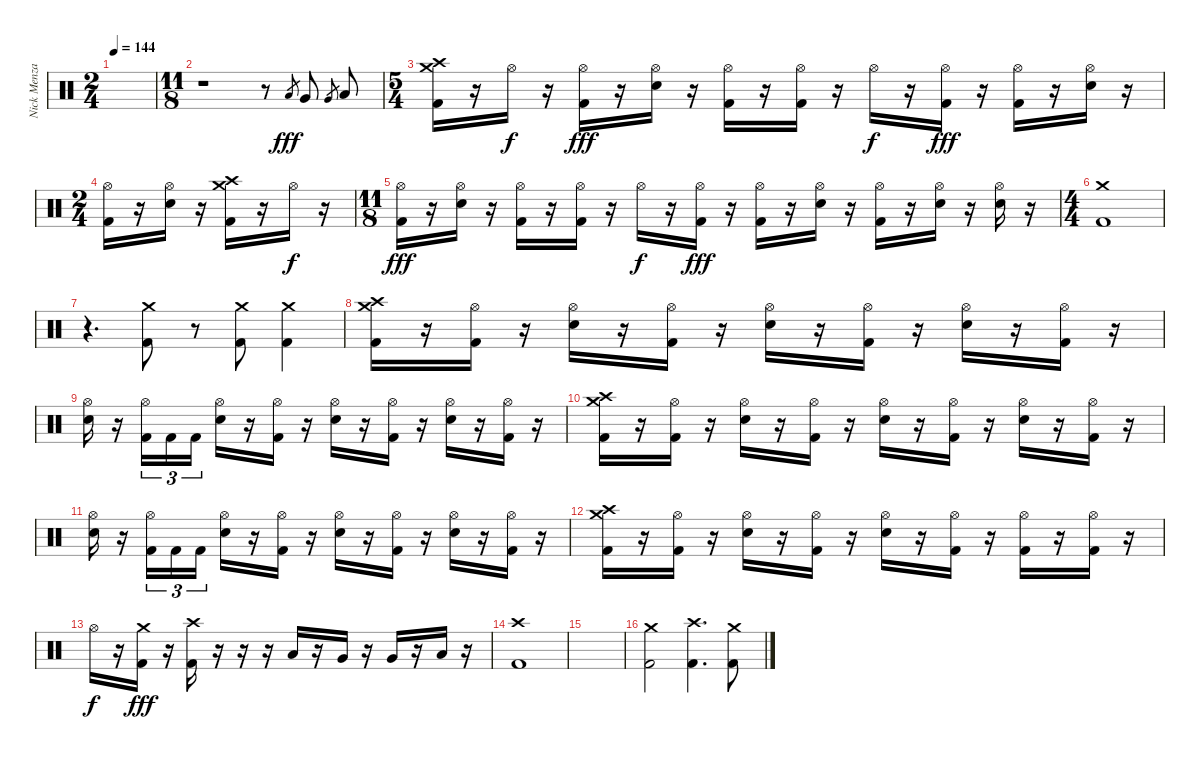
\track ("Nick Menza" "Nick Menza") {instrument percussion}
\staff {score}
\articulation defaults
\ts (2 4)
\tempo 144
\clef neutral
\ks c
|
\ts (11 8)
r.1 r.8 "Low Tom (hit)".8{gr dy fff} "Very Low Tom (hit)".8 "Very Low Tom (hit)".8{gr} "Low Floor Tom (hit)".8 |
\ts (5 4)
("Kick (hit) 2" "Crash high (hit)" "Crash medium (hit)").16 r.16 "Hi-Hat (open)".16{dy f} r.16 ("Kick (hit) 2" "Hi-Hat (open)").16{dy fff} r.16 ("Electric Snare (hit)" "Hi-Hat (open)").16 r.16 ("Kick (hit) 2" "Hi-Hat (open)").16 r.16 ("Kick (hit) 2" "Hi-Hat (open)").16 r.16 "Hi-Hat (open)".16{dy f} r.16 ("Kick (hit) 2" "Hi-Hat (open)").16{dy fff} r.16 ("Kick (hit) 2" "Hi-Hat (open)").16 r.16 ("Electric Snare (hit)" "Hi-Hat (open)").16 r.16 |
\ts (2 4)
("Kick (hit) 2" "Hi-Hat (open)").16 r.16 ("Electric Snare (hit)" "Hi-Hat (open)").16 r.16 ("Kick (hit) 2" "Crash high (hit)" "Crash medium (hit)").16 r.16 "Hi-Hat (open)".16{dy f} r.16 |
\ts (11 8)
("Kick (hit) 2" "Hi-Hat (open)").16{dy fff} r.16 ("Electric Snare (hit)" "Hi-Hat (open)").16 r.16 ("Kick (hit) 2" "Hi-Hat (open)").16 r.16 ("Kick (hit) 2" "Hi-Hat (open)").16 r.16 "Hi-Hat (open)".16{dy f} r.16 ("Kick (hit) 2" "Hi-Hat (open)").16{dy fff} r.16 ("Kick (hit) 2" "Hi-Hat (open)").16 r.16 ("Electric Snare (hit)" "Hi-Hat (open)").16 r.16 ("Kick (hit) 2" "Hi-Hat (open)").16 r.16 ("Electric Snare (hit)" "Hi-Hat (open)").16 r.16 ("Electric Snare (hit)" "Hi-Hat (open)").16 r.16 |
\ts (4 4)
("Kick (hit) 2" "Crash medium (hit)").1 |
r.4{d} ("Kick (hit) 2" "Crash medium (hit)").8 r.8 ("Kick (hit) 2" "Crash medium (hit)").8 ("Kick (hit) 2" "Crash medium (hit)").4 |
("Kick (hit) 2" "Crash high (hit)" "Crash medium (hit)").16 r.16 ("Kick (hit) 2" "Hi-Hat (open)").16 r.16 ("Electric Snare (hit)" "Hi-Hat (open)").16 r.16 ("Kick (hit) 2" "Hi-Hat (open)").16 r.16 ("Electric Snare (hit)" "Hi-Hat (open)").16 r.16 ("Kick (hit) 2" "Hi-Hat (open)").16 r.16 ("Electric Snare (hit)" "Hi-Hat (open)").16 r.16 ("Kick (hit) 2" "Hi-Hat (open)").16 r.16 |
("Electric Snare (hit)" "Hi-Hat (open)").16 r.16 ("Kick (hit) 2" "Hi-Hat (open)").16{tu (3 2)} "Kick (hit) 2".16{tu (3 2)} "Kick (hit) 2".16{tu (3 2)} ("Electric Snare (hit)" "Hi-Hat (open)").16 r.16 ("Kick (hit) 2" "Hi-Hat (open)").16 r.16 ("Electric Snare (hit)" "Hi-Hat (open)").16 r.16 ("Kick (hit) 2" "Hi-Hat (open)").16 r.16 ("Electric Snare (hit)" "Hi-Hat (open)").16 r.16 ("Kick (hit) 2" "Hi-Hat (open)").16 r.16 |
("Kick (hit) 2" "Crash high (hit)" "Crash medium (hit)").16 r.16 ("Kick (hit) 2" "Hi-Hat (open)").16 r.16 ("Electric Snare (hit)" "Hi-Hat (open)").16 r.16 ("Kick (hit) 2" "Hi-Hat (open)").16 r.16 ("Electric Snare (hit)" "Hi-Hat (open)").16 r.16 ("Kick (hit) 2" "Hi-Hat (open)").16 r.16 ("Electric Snare (hit)" "Hi-Hat (open)").16 r.16 ("Kick (hit) 2" "Hi-Hat (open)").16 r.16 |
("Electric Snare (hit)" "Hi-Hat (open)").16 r.16 ("Kick (hit) 2" "Hi-Hat (open)").16{tu (3 2)} "Kick (hit) 2".16{tu (3 2)} "Kick (hit) 2".16{tu (3 2)} ("Electric Snare (hit)" "Hi-Hat (open)").16 r.16 ("Kick (hit) 2" "Hi-Hat (open)").16 r.16 ("Electric Snare (hit)" "Hi-Hat (open)").16 r.16 ("Kick (hit) 2" "Hi-Hat (open)").16 r.16 ("Electric Snare (hit)" "Hi-Hat (open)").16 r.16 ("Kick (hit) 2" "Hi-Hat (open)").16 r.16 |
("Kick (hit) 2" "Crash high (hit)" "Crash medium (hit)").16 r.16 ("Kick (hit) 2" "Hi-Hat (open)").16 r.16 ("Electric Snare (hit)" "Hi-Hat (open)").16 r.16 ("Kick (hit) 2" "Hi-Hat (open)").16 r.16 ("Electric Snare (hit)" "Hi-Hat (open)").16 r.16 ("Kick (hit) 2" "Hi-Hat (open)").16 r.16 ("Kick (hit) 2" "Hi-Hat (open)").16 r.16 ("Kick (hit) 2" "Hi-Hat (open)").16 r.16 |
"Hi-Hat (open)".16{dy f} r.16 ("Kick (hit) 2" "Crash medium (hit)").16{dy fff} r.16 ("Kick (hit) 2" "Crash high (hit)").16 r.16 r.16 r.16 "Low Tom (hit)".16 r.16 "Very Low Tom (hit)".16 r.16 "Very Low Tom (hit)".16 r.16 "Low Floor Tom (hit)".16 r.16 |
("Kick (hit) 2" "Crash high (hit)").1 |
|
("Kick (hit) 2" "Crash medium (hit)").2 ("Kick (hit) 2" "Crash high (hit)").4{d} ("Kick (hit) 2" "Crash medium (hit)").8
